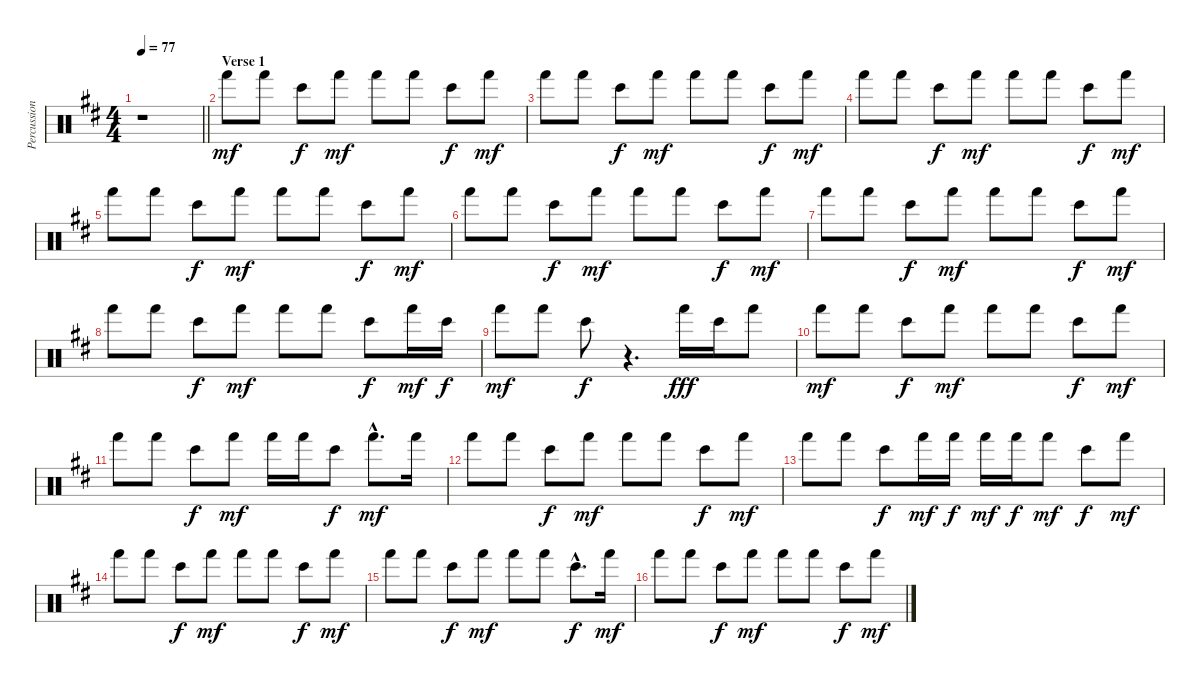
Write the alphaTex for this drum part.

\track ("Percussion" "Percussion") {instrument percussion}
\staff {score}
\articulation defaults
\ts (4 4)
\tempo 77
\clef neutral
\barLineRight lightlight
\ks d
r.1{dy mf} |
\section ("" "Verse 1")
"Hand (hit)".8 "Hand (hit)".8 "Bongo High (hit)".8{dy f} "Hand (hit)".8{dy mf} "Hand (hit)".8 "Hand (hit)".8 "Bongo High (hit)".8{dy f} "Hand (hit)".8{dy mf} |
"Hand (hit)".8 "Hand (hit)".8 "Bongo High (hit)".8{dy f} "Hand (hit)".8{dy mf} "Hand (hit)".8 "Hand (hit)".8 "Bongo High (hit)".8{dy f} "Hand (hit)".8{dy mf} |
"Hand (hit)".8 "Hand (hit)".8 "Bongo High (hit)".8{dy f} "Hand (hit)".8{dy mf} "Hand (hit)".8 "Hand (hit)".8 "Bongo High (hit)".8{dy f} "Hand (hit)".8{dy mf} |
"Hand (hit)".8 "Hand (hit)".8 "Bongo High (hit)".8{dy f} "Hand (hit)".8{dy mf} "Hand (hit)".8 "Hand (hit)".8 "Bongo High (hit)".8{dy f} "Hand (hit)".8{dy mf} |
"Hand (hit)".8 "Hand (hit)".8 "Bongo High (hit)".8{dy f} "Hand (hit)".8{dy mf} "Hand (hit)".8 "Hand (hit)".8 "Bongo High (hit)".8{dy f} "Hand (hit)".8{dy mf} |
"Hand (hit)".8 "Hand (hit)".8 "Bongo High (hit)".8{dy f} "Hand (hit)".8{dy mf} "Hand (hit)".8 "Hand (hit)".8 "Bongo High (hit)".8{dy f} "Hand (hit)".8{dy mf} |
"Hand (hit)".8 "Hand (hit)".8 "Bongo High (hit)".8{dy f} "Hand (hit)".8{dy mf} "Hand (hit)".8 "Hand (hit)".8 "Bongo High (hit)".8{dy f} "Hand (hit)".16{dy mf} "Bongo High (hit)".16{dy f} |
"Hand (hit)".8{dy mf} "Hand (hit)".8 "Bongo High (hit)".8{dy f} r.4{d} "Hand (hit)".16{dy fff} "Bongo High (hit)".16 "Hand (hit)".8 |
"Hand (hit)".8{dy mf} "Hand (hit)".8 "Bongo High (hit)".8{dy f} "Hand (hit)".8{dy mf} "Hand (hit)".8 "Hand (hit)".8 "Bongo High (hit)".8{dy f} "Hand (hit)".8{dy mf} |
"Hand (hit)".8 "Hand (hit)".8 "Bongo High (hit)".8{dy f} "Hand (hit)".8{dy mf} "Hand (hit)".16 "Hand (hit)".16 "Bongo High (hit)".8{dy f} "Hand (hit)"{hac}.8{d dy mf} "Hand (hit)".16 |
"Hand (hit)".8 "Hand (hit)".8 "Bongo High (hit)".8{dy f} "Hand (hit)".8{dy mf} "Hand (hit)".8 "Hand (hit)".8 "Bongo High (hit)".8{dy f} "Hand (hit)".8{dy mf} |
"Hand (hit)".8 "Hand (hit)".8 "Bongo High (hit)".8{dy f} "Hand (hit)".16{dy mf} "Hand (hit)".16{dy f} "Hand (hit)".16{dy mf} "Hand (hit)".16{dy f} "Hand (hit)".8{dy mf} "Bongo High (hit)".8{dy f} "Hand (hit)".8{dy mf} |
"Hand (hit)".8 "Hand (hit)".8 "Bongo High (hit)".8{dy f} "Hand (hit)".8{dy mf} "Hand (hit)".8 "Hand (hit)".8 "Bongo High (hit)".8{dy f} "Hand (hit)".8{dy mf} |
"Hand (hit)".8 "Hand (hit)".8 "Bongo High (hit)".8{dy f} "Hand (hit)".8{dy mf} "Hand (hit)".8 "Hand (hit)".8 "Bongo High (hit)"{hac}.8{d dy f} "Hand (hit)".16{dy mf} |
"Hand (hit)".8 "Hand (hit)".8 "Bongo High (hit)".8{dy f} "Hand (hit)".8{dy mf} "Hand (hit)".8 "Hand (hit)".8 "Bongo High (hit)".8{dy f} "Hand (hit)".8{dy mf}
